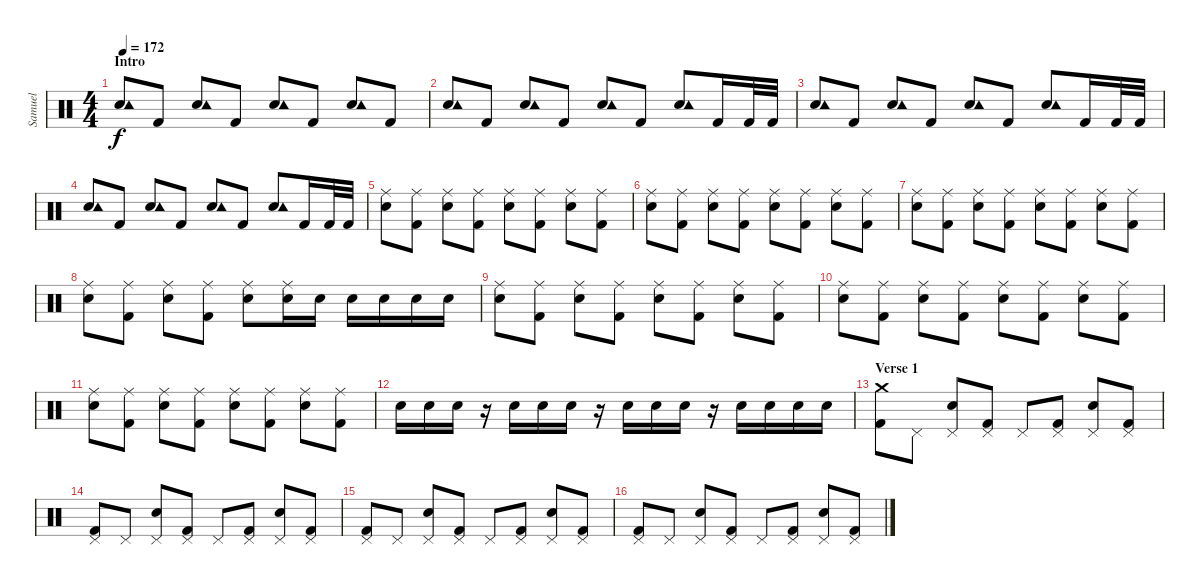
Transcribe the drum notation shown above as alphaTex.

\track ("Samuel" "Samuel") {instrument percussion}
\staff {score}
\articulation defaults
\ts (4 4)
\section ("" "Intro")
\tempo 172
\clef neutral
\ks c
("Snare (hit) 2" "Tambourine (hit)").8{dy f} "Kick (hit) 2".8 ("Snare (hit) 2" "Tambourine (hit)").8 "Kick (hit) 2".8 ("Snare (hit) 2" "Tambourine (hit)").8 "Kick (hit) 2".8 ("Snare (hit) 2" "Tambourine (hit)").8 "Kick (hit) 2".8 |
("Snare (hit) 2" "Tambourine (hit)").8 "Kick (hit) 2".8 ("Snare (hit) 2" "Tambourine (hit)").8 "Kick (hit) 2".8 ("Snare (hit) 2" "Tambourine (hit)").8 "Kick (hit) 2".8 ("Snare (hit) 2" "Tambourine (hit)").8 "Kick (hit) 2".16 "Kick (hit) 2".32 "Kick (hit) 2".32 |
("Snare (hit) 2" "Tambourine (hit)").8 "Kick (hit) 2".8 ("Snare (hit) 2" "Tambourine (hit)").8 "Kick (hit) 2".8 ("Snare (hit) 2" "Tambourine (hit)").8 "Kick (hit) 2".8 ("Snare (hit) 2" "Tambourine (hit)").8 "Kick (hit) 2".16 "Kick (hit) 2".32 "Kick (hit) 2".32 |
("Snare (hit) 2" "Tambourine (hit)").8 "Kick (hit) 2".8 ("Snare (hit) 2" "Tambourine (hit)").8 "Kick (hit) 2".8 ("Snare (hit) 2" "Tambourine (hit)").8 "Kick (hit) 2".8 ("Snare (hit) 2" "Tambourine (hit)").8 "Kick (hit) 2".16 "Kick (hit) 2".32 "Kick (hit) 2".32 |
("Ride (middle)" "Snare (hit) 2").8 ("Ride (middle)" "Kick (hit) 2").8 ("Ride (middle)" "Snare (hit) 2").8 ("Ride (middle)" "Kick (hit) 2").8 ("Ride (middle)" "Snare (hit) 2").8 ("Ride (middle)" "Kick (hit) 2").8 ("Ride (middle)" "Snare (hit) 2").8 ("Ride (middle)" "Kick (hit) 2").8 |
("Ride (middle)" "Snare (hit) 2").8 ("Ride (middle)" "Kick (hit) 2").8 ("Ride (middle)" "Snare (hit) 2").8 ("Ride (middle)" "Kick (hit) 2").8 ("Ride (middle)" "Snare (hit) 2").8 ("Ride (middle)" "Kick (hit) 2").8 ("Ride (middle)" "Snare (hit) 2").8 ("Ride (middle)" "Kick (hit) 2").8 |
("Ride (middle)" "Snare (hit) 2").8 ("Ride (middle)" "Kick (hit) 2").8 ("Ride (middle)" "Snare (hit) 2").8 ("Ride (middle)" "Kick (hit) 2").8 ("Ride (middle)" "Snare (hit) 2").8 ("Ride (middle)" "Kick (hit) 2").8 ("Ride (middle)" "Snare (hit) 2").8 ("Ride (middle)" "Kick (hit) 2").8 |
("Ride (middle)" "Snare (hit) 2").8 ("Ride (middle)" "Kick (hit) 2").8 ("Ride (middle)" "Snare (hit) 2").8 ("Ride (middle)" "Kick (hit) 2").8 ("Ride (middle)" "Snare (hit) 2").8 ("Ride (middle)" "Snare (hit) 2").16 "Snare (hit) 2".16 "Snare (hit) 2".16 "Snare (hit) 2".16 "Snare (hit) 2".16 "Snare (hit) 2".16 |
("Ride (middle)" "Snare (hit) 2").8 ("Ride (middle)" "Kick (hit) 2").8 ("Ride (middle)" "Snare (hit) 2").8 ("Ride (middle)" "Kick (hit) 2").8 ("Ride (middle)" "Snare (hit) 2").8 ("Ride (middle)" "Kick (hit) 2").8 ("Ride (middle)" "Snare (hit) 2").8 ("Ride (middle)" "Kick (hit) 2").8 |
("Ride (middle)" "Snare (hit) 2").8 ("Ride (middle)" "Kick (hit) 2").8 ("Ride (middle)" "Snare (hit) 2").8 ("Ride (middle)" "Kick (hit) 2").8 ("Ride (middle)" "Snare (hit) 2").8 ("Ride (middle)" "Kick (hit) 2").8 ("Ride (middle)" "Snare (hit) 2").8 ("Ride (middle)" "Kick (hit) 2").8 |
("Ride (middle)" "Snare (hit) 2").8 ("Ride (middle)" "Kick (hit) 2").8 ("Ride (middle)" "Snare (hit) 2").8 ("Ride (middle)" "Kick (hit) 2").8 ("Ride (middle)" "Snare (hit) 2").8 ("Ride (middle)" "Kick (hit) 2").8 ("Ride (middle)" "Snare (hit) 2").8 ("Ride (middle)" "Kick (hit) 2").8 |
"Snare (hit) 2".16 "Snare (hit) 2".16 "Snare (hit) 2".16 r.16 "Snare (hit) 2".16 "Snare (hit) 2".16 "Snare (hit) 2".16 r.16 "Snare (hit) 2".16 "Snare (hit) 2".16 "Snare (hit) 2".16 r.16 "Snare (hit) 2".16 "Snare (hit) 2".16 "Snare (hit) 2".16 "Snare (hit) 2".16 |
\section ("" "Verse 1")
("Crash medium (hit)" "Kick (hit) 2").8 "Pedal Hi-Hat (hit)".8 ("Pedal Hi-Hat (hit)" "Snare (hit) 2").8 ("Pedal Hi-Hat (hit)" "Kick (hit) 2").8 "Pedal Hi-Hat (hit)".8 ("Pedal Hi-Hat (hit)" "Kick (hit) 2").8 ("Pedal Hi-Hat (hit)" "Snare (hit) 2").8 ("Pedal Hi-Hat (hit)" "Kick (hit) 2").8 |
("Pedal Hi-Hat (hit)" "Kick (hit) 2").8 "Pedal Hi-Hat (hit)".8 ("Pedal Hi-Hat (hit)" "Snare (hit) 2").8 ("Pedal Hi-Hat (hit)" "Kick (hit) 2").8 "Pedal Hi-Hat (hit)".8 ("Pedal Hi-Hat (hit)" "Kick (hit) 2").8 ("Pedal Hi-Hat (hit)" "Snare (hit) 2").8 ("Pedal Hi-Hat (hit)" "Kick (hit) 2").8 |
("Pedal Hi-Hat (hit)" "Kick (hit) 2").8 "Pedal Hi-Hat (hit)".8 ("Pedal Hi-Hat (hit)" "Snare (hit) 2").8 ("Pedal Hi-Hat (hit)" "Kick (hit) 2").8 "Pedal Hi-Hat (hit)".8 ("Pedal Hi-Hat (hit)" "Kick (hit) 2").8 ("Pedal Hi-Hat (hit)" "Snare (hit) 2").8 ("Pedal Hi-Hat (hit)" "Kick (hit) 2").8 |
("Pedal Hi-Hat (hit)" "Kick (hit) 2").8 "Pedal Hi-Hat (hit)".8 ("Pedal Hi-Hat (hit)" "Snare (hit) 2").8 ("Pedal Hi-Hat (hit)" "Kick (hit) 2").8 "Pedal Hi-Hat (hit)".8 ("Pedal Hi-Hat (hit)" "Kick (hit) 2").8 ("Pedal Hi-Hat (hit)" "Snare (hit) 2").8 ("Pedal Hi-Hat (hit)" "Kick (hit) 2").8
